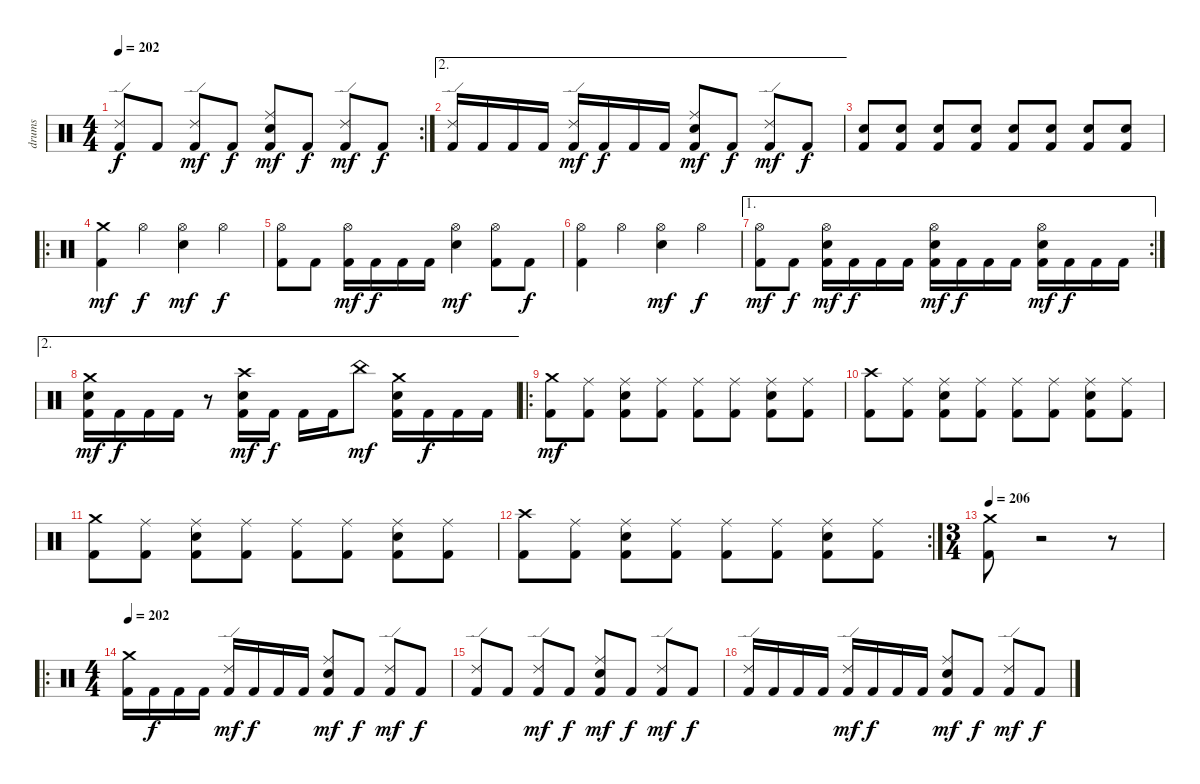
\track ("drums" "drums") {instrument percussion}
\staff {score}
\articulation defaults
\rc 2
\ts (4 4)
\tempo 202
\clef neutral
\ks c
("Ride (edge) 2" "Kick (hit) 2").8{dy f} "Kick (hit) 2".8 ("Ride (edge) 2" "Kick (hit) 2").8{dy mf} "Kick (hit) 2".8{dy f} ("Ride (middle)" "Snare (hit) 2" "Kick (hit) 2").8{dy mf} "Kick (hit) 2".8{dy f} ("Ride (edge) 2" "Kick (hit) 2").8{dy mf} "Kick (hit) 2".8{dy f} |
\ae 2
("Ride (edge) 2" "Kick (hit) 2").16 "Kick (hit) 2".16 "Kick (hit) 2".16 "Kick (hit) 2".16 ("Ride (edge) 2" "Kick (hit) 2").16{dy mf} "Kick (hit) 2".16{dy f} "Kick (hit) 2".16 "Kick (hit) 2".16 ("Ride (middle)" "Snare (hit) 2" "Kick (hit) 2").8{dy mf} "Kick (hit) 2".8{dy f} ("Ride (edge) 2" "Kick (hit) 2").8{dy mf} "Kick (hit) 2".8{dy f} |
("Snare (hit) 2" "Kick (hit) 2").8 ("Snare (hit) 2" "Kick (hit) 2").8 ("Snare (hit) 2" "Kick (hit) 2").8 ("Snare (hit) 2" "Kick (hit) 2").8 ("Snare (hit) 2" "Kick (hit) 2").8 ("Snare (hit) 2" "Kick (hit) 2").8 ("Snare (hit) 2" "Kick (hit) 2").8 ("Snare (hit) 2" "Kick (hit) 2").8 |
\ro
("Crash medium (hit)" "Kick (hit) 2").4{dy mf} "Hi-Hat (open)".4{dy f} ("Hi-Hat (open)" "Snare (hit) 2").4{dy mf} "Hi-Hat (open)".4{dy f} |
("Hi-Hat (open)" "Kick (hit) 2").8 "Kick (hit) 2".8 ("Hi-Hat (open)" "Kick (hit) 2").16{dy mf} "Kick (hit) 2".16{dy f} "Kick (hit) 2".16 "Kick (hit) 2".16 ("Hi-Hat (open)" "Snare (hit) 2").4{dy mf} ("Hi-Hat (open)" "Kick (hit) 2").8 "Kick (hit) 2".8{dy f} |
("Hi-Hat (open)" "Kick (hit) 2").4 "Hi-Hat (open)".4 ("Hi-Hat (open)" "Snare (hit) 2").4{dy mf} "Hi-Hat (open)".4{dy f} |
\ae 1
\rc 2
("Hi-Hat (open)" "Kick (hit) 2").8{dy mf} "Kick (hit) 2".8{dy f} ("Hi-Hat (open)" "Snare (hit) 2" "Kick (hit) 2").16{dy mf} "Kick (hit) 2".16{dy f} "Kick (hit) 2".16 "Kick (hit) 2".16 ("Hi-Hat (open)" "Snare (hit) 2" "Kick (hit) 2").16{dy mf} "Kick (hit) 2".16{dy f} "Kick (hit) 2".16 "Kick (hit) 2".16 ("Hi-Hat (open)" "Snare (hit) 2" "Kick (hit) 2").16{dy mf} "Kick (hit) 2".16{dy f} "Kick (hit) 2".16 "Kick (hit) 2".16 |
\ae 2
("Crash medium (hit)" "Snare (hit) 2" "Kick (hit) 2").16{dy mf} "Kick (hit) 2".16{dy f} "Kick (hit) 2".16 "Kick (hit) 2".16 r.8 ("Crash high (hit)" "Snare (hit) 2" "Kick (hit) 2").16{dy mf} "Kick (hit) 2".16{dy f} "Kick (hit) 2".16 "Kick (hit) 2".16 "China (hit)".8{dy mf} ("Crash medium (hit)" "Snare (hit) 2" "Kick (hit) 2").16 "Kick (hit) 2".16{dy f} "Kick (hit) 2".16 "Kick (hit) 2".16 |
\ro
("Crash medium (hit)" "Kick (hit) 2").8{dy mf} ("Ride (middle)" "Kick (hit) 2").8 ("Ride (middle)" "Snare (hit) 2" "Kick (hit) 2").8 ("Ride (middle)" "Kick (hit) 2").8 ("Ride (middle)" "Kick (hit) 2").8 ("Ride (middle)" "Kick (hit) 2").8 ("Ride (middle)" "Snare (hit) 2" "Kick (hit) 2").8 ("Ride (middle)" "Kick (hit) 2").8 |
("Crash high (hit)" "Kick (hit) 2").8 ("Ride (middle)" "Kick (hit) 2").8 ("Ride (middle)" "Snare (hit) 2" "Kick (hit) 2").8 ("Ride (middle)" "Kick (hit) 2").8 ("Ride (middle)" "Kick (hit) 2").8 ("Ride (middle)" "Kick (hit) 2").8 ("Ride (middle)" "Snare (hit) 2" "Kick (hit) 2").8 ("Ride (middle)" "Kick (hit) 2").8 |
("Crash medium (hit)" "Kick (hit) 2").8 ("Ride (middle)" "Kick (hit) 2").8 ("Ride (middle)" "Snare (hit) 2" "Kick (hit) 2").8 ("Ride (middle)" "Kick (hit) 2").8 ("Ride (middle)" "Kick (hit) 2").8 ("Ride (middle)" "Kick (hit) 2").8 ("Ride (middle)" "Snare (hit) 2" "Kick (hit) 2").8 ("Ride (middle)" "Kick (hit) 2").8 |
\rc 2
("Crash high (hit)" "Kick (hit) 2").8 ("Ride (middle)" "Kick (hit) 2").8 ("Ride (middle)" "Snare (hit) 2" "Kick (hit) 2").8 ("Ride (middle)" "Kick (hit) 2").8 ("Ride (middle)" "Kick (hit) 2").8 ("Ride (middle)" "Kick (hit) 2").8 ("Ride (middle)" "Snare (hit) 2" "Kick (hit) 2").8 ("Ride (middle)" "Kick (hit) 2").8 |
\ts (3 4)
\tempo 206
("Crash medium (hit)" "Kick (hit) 2").8 r.2 r.8 |
\ro
\ts (4 4)
\tempo 202
("Crash medium (hit)" "Kick (hit) 2").16 "Kick (hit) 2".16{dy f} "Kick (hit) 2".16 "Kick (hit) 2".16 ("Ride (edge) 2" "Kick (hit) 2").16{dy mf} "Kick (hit) 2".16{dy f} "Kick (hit) 2".16 "Kick (hit) 2".16 ("Ride (middle)" "Snare (hit) 2" "Kick (hit) 2").8{dy mf} "Kick (hit) 2".8{dy f} ("Ride (edge) 2" "Kick (hit) 2").8{dy mf} "Kick (hit) 2".8{dy f} |
("Ride (edge) 2" "Kick (hit) 2").8 "Kick (hit) 2".8 ("Ride (edge) 2" "Kick (hit) 2").8{dy mf} "Kick (hit) 2".8{dy f} ("Ride (middle)" "Snare (hit) 2" "Kick (hit) 2").8{dy mf} "Kick (hit) 2".8{dy f} ("Ride (edge) 2" "Kick (hit) 2").8{dy mf} "Kick (hit) 2".8{dy f} |
("Ride (edge) 2" "Kick (hit) 2").16 "Kick (hit) 2".16 "Kick (hit) 2".16 "Kick (hit) 2".16 ("Ride (edge) 2" "Kick (hit) 2").16{dy mf} "Kick (hit) 2".16{dy f} "Kick (hit) 2".16 "Kick (hit) 2".16 ("Ride (middle)" "Snare (hit) 2" "Kick (hit) 2").8{dy mf} "Kick (hit) 2".8{dy f} ("Ride (edge) 2" "Kick (hit) 2").8{dy mf} "Kick (hit) 2".8{dy f}
